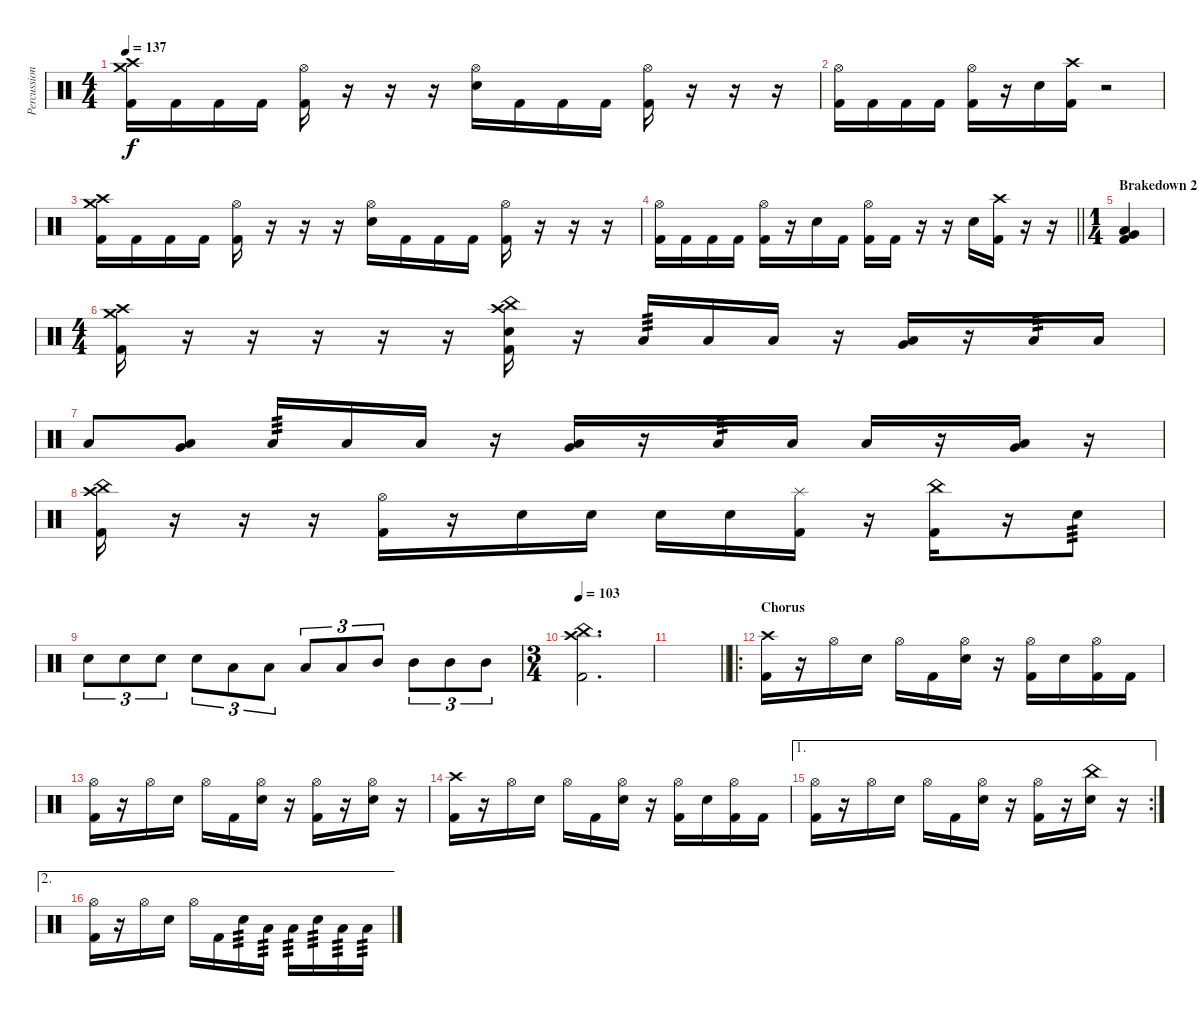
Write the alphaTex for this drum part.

\track ("Percussion" "Percussion") {instrument percussion}
\staff {score}
\articulation defaults
\ts (4 4)
\tempo 137
\clef neutral
\ks c
("Crash high (hit)" "Crash medium (hit)" "Kick (hit) 2").16{dy f} "Kick (hit) 2".16 "Kick (hit) 2".16 "Kick (hit) 2".16 ("Hi-Hat (open)" "Kick (hit) 2").16 r.16 r.16 r.16 ("Hi-Hat (open)" "Electric Snare (hit)").16 "Kick (hit) 2".16 "Kick (hit) 2".16 "Kick (hit) 2".16 ("Hi-Hat (open)" "Kick (hit) 2").16 r.16 r.16 r.16 |
("Hi-Hat (open)" "Kick (hit) 2").16 "Kick (hit) 2".16 "Kick (hit) 2".16 "Kick (hit) 2".16 ("Hi-Hat (open)" "Kick (hit) 2").16 r.16 "Electric Snare (hit)".16 ("Crash high (hit)" "Kick (hit) 2").16 r.2 |
("Crash high (hit)" "Crash medium (hit)" "Kick (hit) 2").16 "Kick (hit) 2".16 "Kick (hit) 2".16 "Kick (hit) 2".16 ("Hi-Hat (open)" "Kick (hit) 2").16 r.16 r.16 r.16 ("Hi-Hat (open)" "Electric Snare (hit)").16 "Kick (hit) 2".16 "Kick (hit) 2".16 "Kick (hit) 2".16 ("Hi-Hat (open)" "Kick (hit) 2").16 r.16 r.16 r.16 |
\barLineRight lightlight
("Hi-Hat (open)" "Kick (hit) 2").16 "Kick (hit) 2".16 "Kick (hit) 2".16 "Kick (hit) 2".16 ("Hi-Hat (open)" "Kick (hit) 2").16 r.16 "Electric Snare (hit)".16 "Kick (hit) 2".16 ("Hi-Hat (open)" "Kick (hit) 2").16 "Kick (hit) 2".16 r.16 r.16 "Electric Snare (hit)".16 ("Crash high (hit)" "Kick (hit) 2").16 r.16 r.16 |
\ts (1 4)
\section ("" "Brakedown 2")
("Low Tom (hit)" "Very Low Tom (hit)" "Kick (hit) 2").4 |
\ts (4 4)
("Crash high (hit)" "Crash medium (hit)" "Kick (hit) 2").16 r.16 r.16 r.16 r.16 r.16 ("Crash high (hit)" "China (hit)" "Electric Snare (hit)" "Kick (hit) 2").16 r.16 "Low Tom (hit)".16{tp 3} "Low Tom (hit)".16 "Low Tom (hit)".16 r.16 ("Low Tom (hit)" "Very Low Tom (hit)").16 r.16 "Low Tom (hit)".16{tp 3} "Low Tom (hit)".16 |
"Low Tom (hit)".8 ("Low Tom (hit)" "Very Low Tom (hit)").8 "Low Tom (hit)".16{tp 3} "Low Tom (hit)".16 "Low Tom (hit)".16 r.16 ("Low Tom (hit)" "Very Low Tom (hit)").16 r.16 "Low Tom (hit)".16{tp 3} "Low Tom (hit)".16 "Low Tom (hit)".16 r.16 ("Low Tom (hit)" "Very Low Tom (hit)").16 r.16 |
("Crash high (hit)" "China (hit)" "Kick (hit) 2").16 r.16 r.16 r.16 ("Hi-Hat (open)" "Kick (hit) 2").16 r.16 "Electric Snare (hit)".16 "Electric Snare (hit)".16 "Electric Snare (hit)".16 "Electric Snare (hit)".16 ("Splash (hit)" "Kick (hit) 2").16 r.16 ("China (hit)" "Kick (hit) 2").16 r.16 "Electric Snare (hit)".8{tp 3} |
"Electric Snare (hit)".8{tu (3 2)} "Electric Snare (hit)".8{tu (3 2)} "Electric Snare (hit)".8{tu (3 2)} "Electric Snare (hit)".8{tu (3 2)} "Low Tom (hit)".8{tu (3 2)} "Low Tom (hit)".8{tu (3 2)} "Low Tom (hit)".8{tu (3 2)} "Low Tom (hit)".8{tu (3 2)} "Mid Tom (hit)".8{tu (3 2)} "Mid Tom (hit)".8{tu (3 2)} "Mid Tom (hit)".8{tu (3 2)} "Mid Tom (hit)".8{tu (3 2)} |
\ts (3 4)
\tempo 103
("Crash high (hit)" "China (hit)" "Kick (hit) 2").2{d} |
\barLineRight lightlight
|
\ro
\section ("" "Chorus")
("Crash high (hit)" "Kick (hit) 2").16 r.16 "Hi-Hat (open)".16 "Electric Snare (hit)".16 "Hi-Hat (open)".16 "Kick (hit) 2".16 ("Hi-Hat (open)" "Electric Snare (hit)").16 r.16 ("Hi-Hat (open)" "Kick (hit) 2").16 "Electric Snare (hit)".16 ("Hi-Hat (open)" "Kick (hit) 2").16 "Kick (hit) 2".16 |
("Hi-Hat (open)" "Kick (hit) 2").16 r.16 "Hi-Hat (open)".16 "Electric Snare (hit)".16 "Hi-Hat (open)".16 "Kick (hit) 2".16 ("Hi-Hat (open)" "Electric Snare (hit)").16 r.16 ("Hi-Hat (open)" "Kick (hit) 2").16 r.16 ("Hi-Hat (open)" "Electric Snare (hit)").16 r.16 |
("Crash high (hit)" "Kick (hit) 2").16 r.16 "Hi-Hat (open)".16 "Electric Snare (hit)".16 "Hi-Hat (open)".16 "Kick (hit) 2".16 ("Hi-Hat (open)" "Electric Snare (hit)").16 r.16 ("Hi-Hat (open)" "Kick (hit) 2").16 "Electric Snare (hit)".16 ("Hi-Hat (open)" "Kick (hit) 2").16 "Kick (hit) 2".16 |
\ae 1
\rc 2
("Hi-Hat (open)" "Kick (hit) 2").16 r.16 "Hi-Hat (open)".16 "Electric Snare (hit)".16 "Hi-Hat (open)".16 "Kick (hit) 2".16 ("Hi-Hat (open)" "Electric Snare (hit)").16 r.16 ("Hi-Hat (open)" "Kick (hit) 2").16 r.16 ("China (hit)" "Electric Snare (hit)").16 r.16 |
\ae 2
("Hi-Hat (open)" "Kick (hit) 2").16 r.16 "Hi-Hat (open)".16 "Electric Snare (hit)".16 "Hi-Hat (open)".16 "Kick (hit) 2".16 "Electric Snare (hit)".16{tp 3} "Low Tom (hit)".16{tp 3} "Low Tom (hit)".16{tp 3} "Electric Snare (hit)".16{tp 3} "Low Tom (hit)".16{tp 3} "Low Tom (hit)".16{tp 3}
